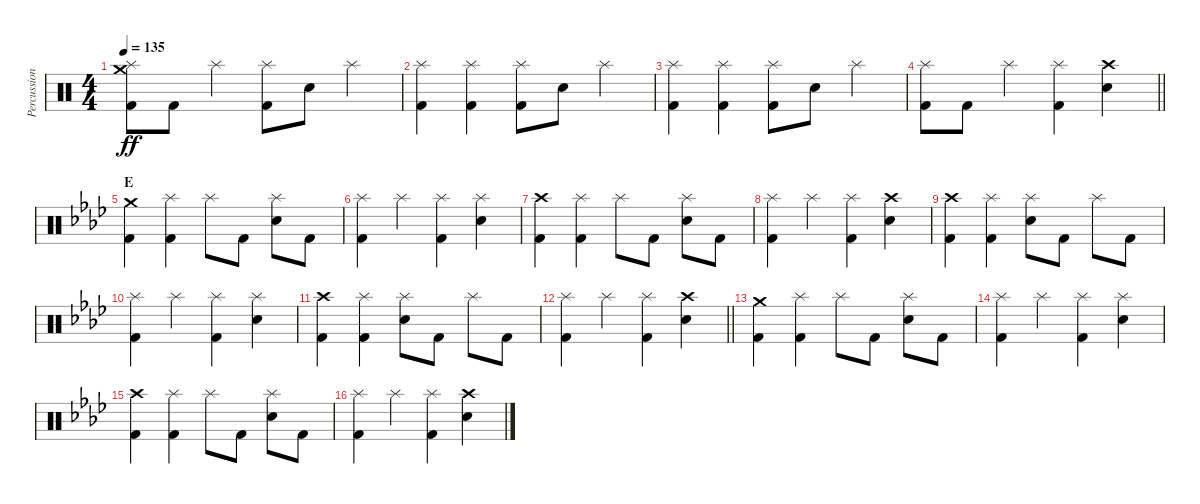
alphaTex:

\track ("Percussion" "Percussion") {instrument percussion}
\staff {score}
\articulation defaults
\ts (4 4)
\section ("" "")
\tempo 135
\clef neutral
\ks c
("Crash medium (hit)" "Splash (hit)" "Kick (hit) 2").8{dy ff} "Kick (hit) 2".8 "Splash (hit)".4 ("Splash (hit)" "Kick (hit) 2").8 "Electric Snare (hit)".8 "Splash (hit)".4 |
("Splash (hit)" "Kick (hit) 2").4 ("Splash (hit)" "Kick (hit) 2").4 ("Splash (hit)" "Kick (hit) 2").8 "Electric Snare (hit)".8 "Splash (hit)".4 |
("Splash (hit)" "Kick (hit) 2").4 ("Splash (hit)" "Kick (hit) 2").4 ("Splash (hit)" "Kick (hit) 2").8 "Electric Snare (hit)".8 "Splash (hit)".4 |
\barLineRight lightlight
("Splash (hit)" "Kick (hit) 2").8 "Kick (hit) 2".8 "Splash (hit)".4 ("Splash (hit)" "Kick (hit) 2").4 ("Crash high (hit)" "Electric Snare (hit)").4 |
\section ("" "E")
\ks fminor
("Crash medium (hit)" "Kick (hit) 2").4 ("Splash (hit)" "Kick (hit) 2").4 "Splash (hit)".8 "Kick (hit) 2".8 ("Splash (hit)" "Electric Snare (hit)").8 "Kick (hit) 2".8 |
("Splash (hit)" "Kick (hit) 2").4 "Splash (hit)".4 ("Splash (hit)" "Kick (hit) 2").4 ("Splash (hit)" "Electric Snare (hit)").4 |
("Crash high (hit)" "Kick (hit) 2").4 ("Splash (hit)" "Kick (hit) 2").4 "Splash (hit)".8 "Kick (hit) 2".8 ("Splash (hit)" "Electric Snare (hit)").8 "Kick (hit) 2".8 |
("Splash (hit)" "Kick (hit) 2").4 "Splash (hit)".4 ("Splash (hit)" "Kick (hit) 2").4 ("Crash high (hit)" "Electric Snare (hit)").4 |
("Crash high (hit)" "Kick (hit) 2").4 ("Splash (hit)" "Kick (hit) 2").4 ("Splash (hit)" "Electric Snare (hit)").8 "Kick (hit) 2".8 "Splash (hit)".8 "Kick (hit) 2".8 |
("Splash (hit)" "Kick (hit) 2").4 "Splash (hit)".4 ("Splash (hit)" "Kick (hit) 2").4 ("Splash (hit)" "Electric Snare (hit)").4 |
("Crash high (hit)" "Kick (hit) 2").4 ("Splash (hit)" "Kick (hit) 2").4 ("Splash (hit)" "Electric Snare (hit)").8 "Kick (hit) 2".8 "Splash (hit)".8 "Kick (hit) 2".8 |
\barLineRight lightlight
("Splash (hit)" "Kick (hit) 2").4 "Splash (hit)".4 ("Splash (hit)" "Kick (hit) 2").4 ("Crash high (hit)" "Electric Snare (hit)").4 |
\section ("" "")
("Crash medium (hit)" "Kick (hit) 2").4 ("Splash (hit)" "Kick (hit) 2").4 "Splash (hit)".8 "Kick (hit) 2".8 ("Splash (hit)" "Electric Snare (hit)").8 "Kick (hit) 2".8 |
("Splash (hit)" "Kick (hit) 2").4 "Splash (hit)".4 ("Splash (hit)" "Kick (hit) 2").4 ("Splash (hit)" "Electric Snare (hit)").4 |
("Crash high (hit)" "Kick (hit) 2").4 ("Splash (hit)" "Kick (hit) 2").4 "Splash (hit)".8 "Kick (hit) 2".8 ("Splash (hit)" "Electric Snare (hit)").8 "Kick (hit) 2".8 |
("Splash (hit)" "Kick (hit) 2").4 "Splash (hit)".4 ("Splash (hit)" "Kick (hit) 2").4 ("Crash high (hit)" "Electric Snare (hit)").4
